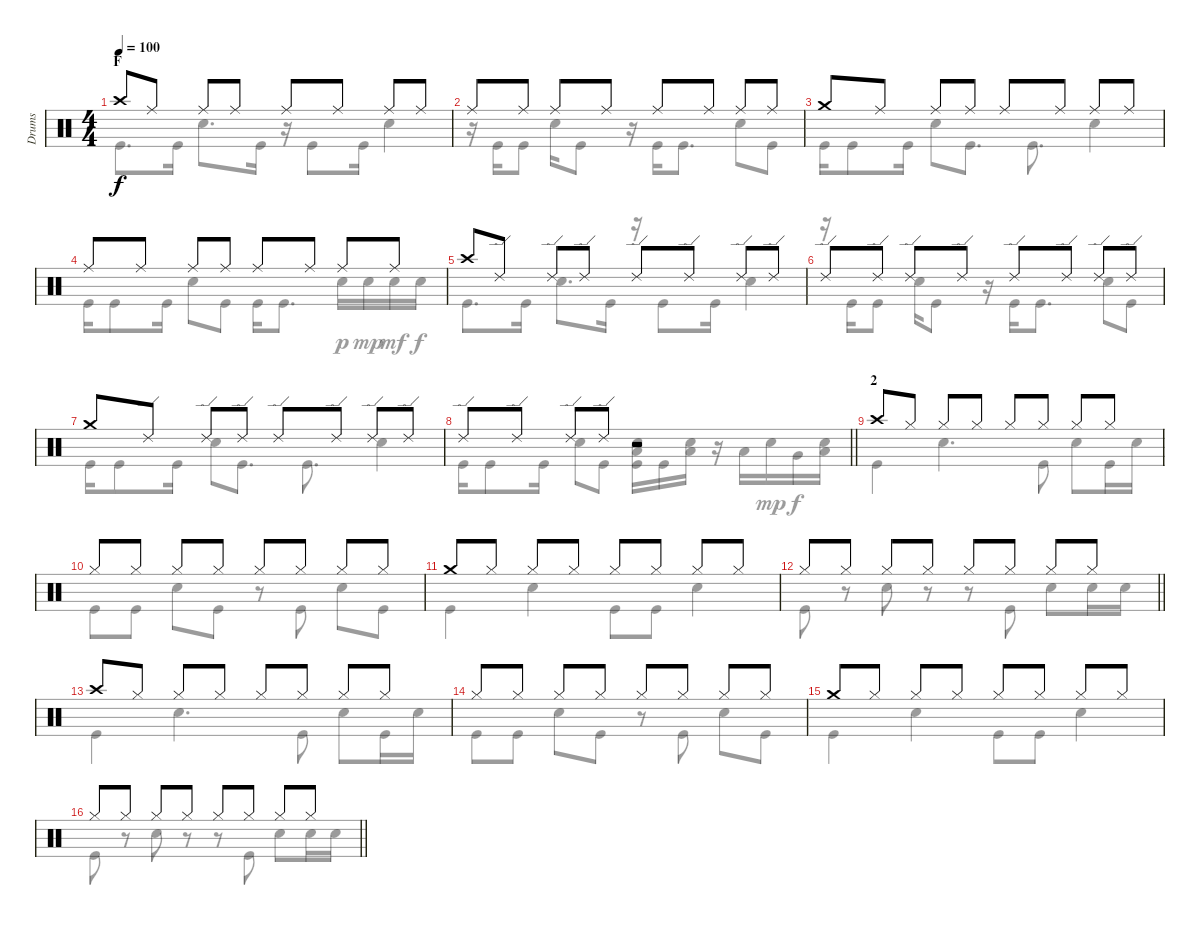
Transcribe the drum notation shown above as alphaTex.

\track ("Drums" "Drums") {instrument percussion}
\staff {score}
\articulation defaults
\voice
\ts (4 4)
\section ("" "F")
\tempo 100
\clef neutral
\ks c "Crash high (hit)".8{dy f} "Ride (middle)".8 "Ride (middle)".8 "Ride (middle)".8 "Ride (middle)".8 "Ride (middle)".8 "Ride (middle)".8 "Ride (middle)".8
|
"Ride (middle)".8 "Ride (middle)".8 "Ride (middle)".8 "Ride (middle)".8 "Ride (middle)".8 "Ride (middle)".8 "Ride (middle)".8 "Ride (middle)".8 |
"Crash medium (hit)".8 "Ride (middle)".8 "Ride (middle)".8 "Ride (middle)".8 "Ride (middle)".8 "Ride (middle)".8 "Ride (middle)".8 "Ride (middle)".8 |
"Ride (middle)".8 "Ride (middle)".8 "Ride (middle)".8 "Ride (middle)".8 "Ride (middle)".8 "Ride (middle)".8 "Ride (middle)".8 "Ride (middle)".8 |
"Crash high (hit)".8 "Ride (edge) 2".8 "Ride (edge) 2".8 "Ride (edge) 2".8 "Ride (edge) 2".8 "Ride (edge) 2".8 "Ride (edge) 2".8 "Ride (edge) 2".8 |
"Ride (edge) 2".8 "Ride (edge) 2".8 "Ride (edge) 2".8 "Ride (edge) 2".8 "Ride (edge) 2".8 "Ride (edge) 2".8 "Ride (edge) 2".8 "Ride (edge) 2".8 |
"Crash medium (hit)".8 "Ride (edge) 2".8 "Ride (edge) 2".8 "Ride (edge) 2".8 "Ride (edge) 2".8 "Ride (edge) 2".8 "Ride (edge) 2".8 "Ride (edge) 2".8 |
\barLineRight lightlight "Ride (edge) 2".8 "Ride (edge) 2".8 "Ride (edge) 2".8 "Ride (edge) 2".8
r.2 |
\section ("" "2")
"Crash high (hit)".8 "Hi-Hat (closed)".8 "Hi-Hat (closed)".8 "Hi-Hat (closed)".8 "Hi-Hat (closed)".8 "Hi-Hat (closed)".8 "Hi-Hat (closed)".8 "Hi-Hat (closed)".8 |
"Hi-Hat (closed)".8 "Hi-Hat (closed)".8 "Hi-Hat (closed)".8 "Hi-Hat (closed)".8 "Hi-Hat (closed)".8 "Hi-Hat (closed)".8 "Hi-Hat (closed)".8 "Hi-Hat (closed)".8 |
"Crash medium (hit)".8 "Hi-Hat (closed)".8 "Hi-Hat (closed)".8 "Hi-Hat (closed)".8 "Hi-Hat (closed)".8 "Hi-Hat (closed)".8 "Hi-Hat (closed)".8 "Hi-Hat (closed)".8 |
\barLineRight lightlight "Hi-Hat (closed)".8 "Hi-Hat (closed)".8 "Hi-Hat (closed)".8 "Hi-Hat (closed)".8 "Hi-Hat (closed)".8 "Hi-Hat (closed)".8 "Hi-Hat (closed)".8 "Hi-Hat (closed)".8
|
"Crash high (hit)".8 "Hi-Hat (closed)".8 "Hi-Hat (closed)".8 "Hi-Hat (closed)".8 "Hi-Hat (closed)".8 "Hi-Hat (closed)".8 "Hi-Hat (closed)".8 "Hi-Hat (closed)".8 |
"Hi-Hat (closed)".8 "Hi-Hat (closed)".8 "Hi-Hat (closed)".8 "Hi-Hat (closed)".8 "Hi-Hat (closed)".8 "Hi-Hat (closed)".8 "Hi-Hat (closed)".8 "Hi-Hat (closed)".8 |
"Crash medium (hit)".8 "Hi-Hat (closed)".8 "Hi-Hat (closed)".8 "Hi-Hat (closed)".8 "Hi-Hat (closed)".8 "Hi-Hat (closed)".8 "Hi-Hat (closed)".8 "Hi-Hat (closed)".8 |
\barLineRight lightlight "Hi-Hat (closed)".8 "Hi-Hat (closed)".8 "Hi-Hat (closed)".8 "Hi-Hat (closed)".8 "Hi-Hat (closed)".8 "Hi-Hat (closed)".8 "Hi-Hat (closed)".8 "Hi-Hat (closed)".8
\voice
\clef neutral
\ottava regular
\simile none
\ks c "Kick (hit)".8{d dy f} "Kick (hit)".16 "Snare (hit) 2".8{d} "Kick (hit)".16
r.16 "Kick (hit)".8 "Kick (hit)".16 "Snare (hit) 2".4 |
r.16 "Kick (hit)".16 "Kick (hit)".8 "Snare (hit) 2".16 "Kick (hit)".8 r.16 "Kick (hit)".16 "Kick (hit)".8{d} "Snare (hit) 2".8 "Kick (hit)".8 |
"Kick (hit)".16 "Kick (hit)".8 "Kick (hit)".16 "Snare (hit) 2".8 "Kick (hit)".8{d} "Kick (hit)".8{d} "Snare (hit) 2".4 |
"Kick (hit)".16 "Kick (hit)".8 "Kick (hit)".16 "Snare (hit) 2".8 "Kick (hit)".8 "Kick (hit)".16 "Kick (hit)".8{d} "Snare (hit) 2".16{dy p} "Snare (hit) 2".16{dy mp} "Snare (hit) 2".16{dy mf} "Snare (hit) 2".16{dy f} |
"Kick (hit)".8{d} "Kick (hit)".16 "Snare (hit) 2".8{d} "Kick (hit)".16 r.16 "Kick (hit)".8 "Kick (hit)".16 "Snare (hit) 2".4 |
r.16 "Kick (hit)".16 "Kick (hit)".8 "Snare (hit) 2".16 "Kick (hit)".8 r.16 "Kick (hit)".16 "Kick (hit)".8{d} "Snare (hit) 2".8 "Kick (hit)".8 |
"Kick (hit)".16 "Kick (hit)".8 "Kick (hit)".16 "Snare (hit) 2".8 "Kick (hit)".8{d} "Kick (hit)".8{d} "Snare (hit) 2".4 |
\barLineRight lightlight "Kick (hit)".16 "Kick (hit)".8 "Kick (hit)".16 "Snare (hit) 2".8 "Kick (hit)".8
("Snare (hit) 2" "Low Floor Tom (hit)" "Kick (hit)").16 "Kick (hit)".16 ("Snare (hit) 2" "Low Floor Tom (hit)").16 r.16 "Low Tom (hit)".16 "Snare (hit) 2".16{dy mp} "Very Low Tom (hit)".16{dy f} ("Snare (hit) 2" "Low Floor Tom (hit)").16 |
"Kick (hit)".4 "Snare (hit) 2".4{d} "Kick (hit)".8 "Snare (hit) 2".8 "Kick (hit)".16 "Snare (hit) 2".16 |
"Kick (hit)".8 "Kick (hit)".8 "Snare (hit) 2".8 "Kick (hit)".8 r.8 "Kick (hit)".8 "Snare (hit) 2".8 "Kick (hit)".8 |
"Kick (hit)".4 "Snare (hit) 2".4 "Kick (hit)".8 "Kick (hit)".8 "Snare (hit) 2".4 |
\barLineRight lightlight "Kick (hit)".8
r.8 "Snare (hit) 2".8 r.8 r.8 "Kick (hit)".8 "Snare (hit) 2".8 "Snare (hit) 2".16 "Snare (hit) 2".16 |
"Kick (hit)".4 "Snare (hit) 2".4{d} "Kick (hit)".8 "Snare (hit) 2".8 "Kick (hit)".16 "Snare (hit) 2".16 |
"Kick (hit)".8 "Kick (hit)".8 "Snare (hit) 2".8 "Kick (hit)".8 r.8 "Kick (hit)".8 "Snare (hit) 2".8 "Kick (hit)".8 |
"Kick (hit)".4 "Snare (hit) 2".4 "Kick (hit)".8 "Kick (hit)".8 "Snare (hit) 2".4 |
\barLineRight lightlight "Kick (hit)".8
r.8 "Snare (hit) 2".8 r.8 r.8 "Kick (hit)".8 "Snare (hit) 2".8 "Snare (hit) 2".16 "Snare (hit) 2".16
